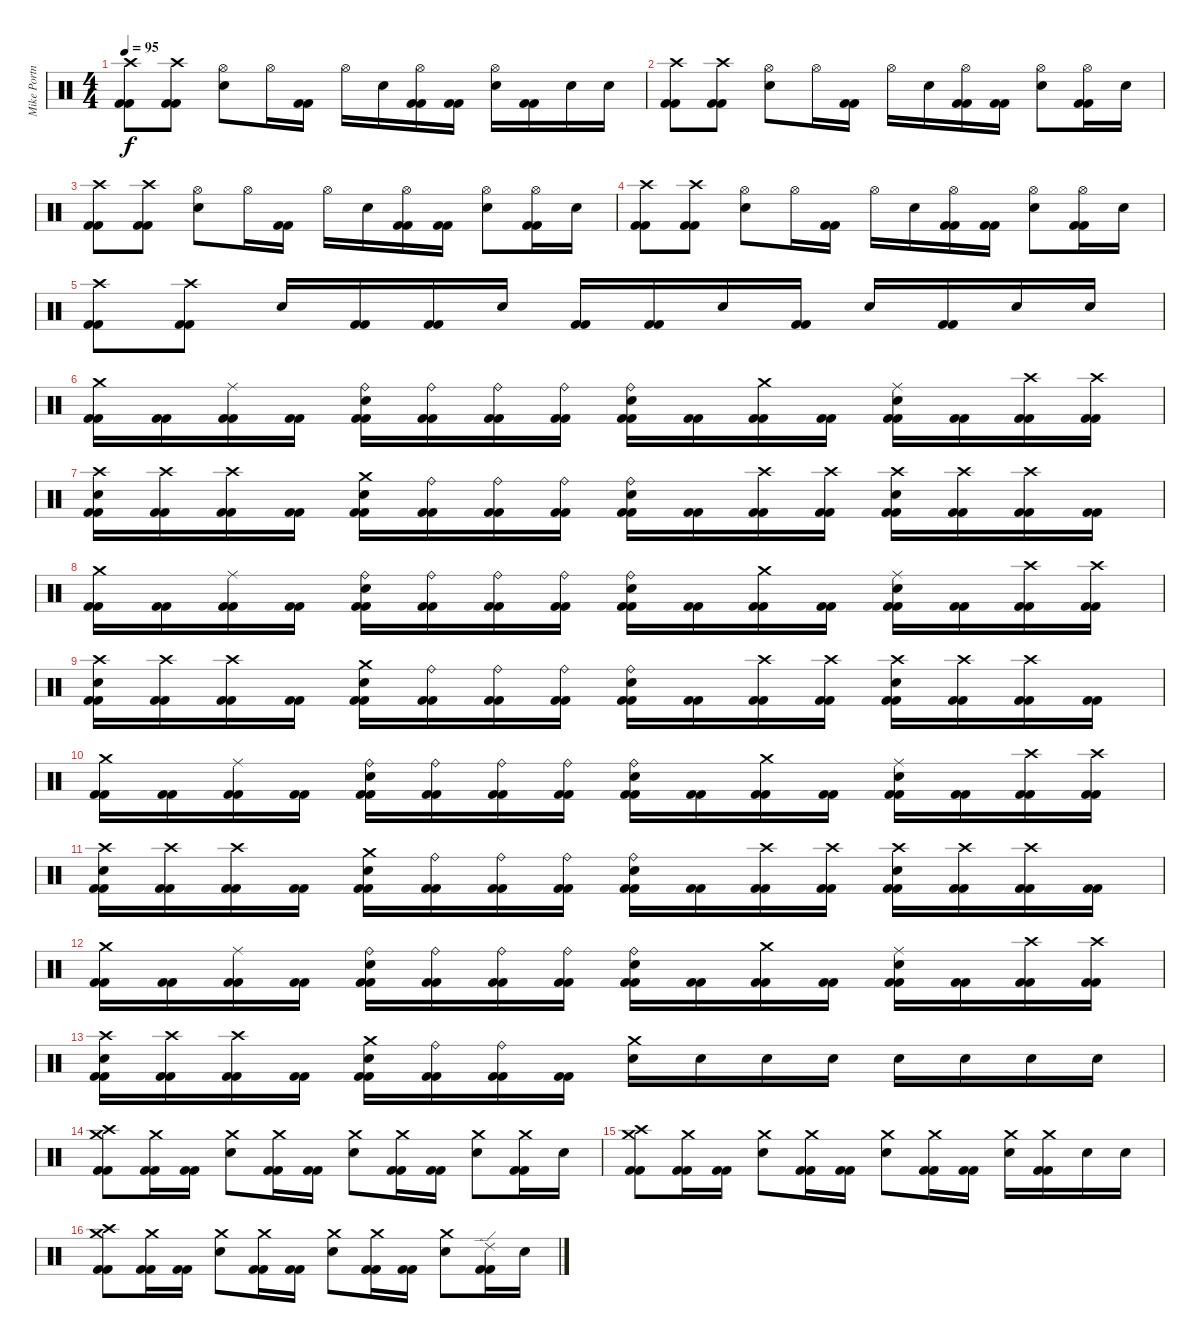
\track ("Mike Portnoy" "Mike Portn") {instrument percussion}
\staff {score}
\articulation defaults
\ts (4 4)
\tempo 95
\clef neutral
\ks c
("Crash high (hit)" "Kick (hit) 2" "Kick (hit) 2").8{dy f} ("Crash high (hit)" "Kick (hit) 2" "Kick (hit) 2").8 ("Hi-Hat (open)" "Snare (hit) 2").8 "Hi-Hat (open)".16 ("Kick (hit) 2" "Kick (hit) 2").16 "Hi-Hat (open)".16 "Snare (hit) 2".16 ("Hi-Hat (open)" "Kick (hit) 2" "Kick (hit) 2").16 ("Kick (hit) 2" "Kick (hit) 2").16 ("Hi-Hat (open)" "Snare (hit) 2").16 ("Kick (hit) 2" "Kick (hit) 2").16 "Snare (hit) 2".16 "Snare (hit) 2".16 |
("Crash high (hit)" "Kick (hit) 2" "Kick (hit) 2").8 ("Crash high (hit)" "Kick (hit) 2" "Kick (hit) 2").8 ("Hi-Hat (open)" "Snare (hit) 2").8 "Hi-Hat (open)".16 ("Kick (hit) 2" "Kick (hit) 2").16 "Hi-Hat (open)".16 "Snare (hit) 2".16 ("Hi-Hat (open)" "Kick (hit) 2" "Kick (hit) 2").16 ("Kick (hit) 2" "Kick (hit) 2").16 ("Hi-Hat (open)" "Snare (hit) 2").8 ("Hi-Hat (open)" "Kick (hit) 2" "Kick (hit) 2").16 "Snare (hit) 2".16 |
("Crash high (hit)" "Kick (hit) 2" "Kick (hit) 2").8 ("Crash high (hit)" "Kick (hit) 2" "Kick (hit) 2").8 ("Hi-Hat (open)" "Snare (hit) 2").8 "Hi-Hat (open)".16 ("Kick (hit) 2" "Kick (hit) 2").16 "Hi-Hat (open)".16 "Snare (hit) 2".16 ("Hi-Hat (open)" "Kick (hit) 2" "Kick (hit) 2").16 ("Kick (hit) 2" "Kick (hit) 2").16 ("Hi-Hat (open)" "Snare (hit) 2").8 ("Hi-Hat (open)" "Kick (hit) 2" "Kick (hit) 2").16 "Snare (hit) 2".16 |
("Crash high (hit)" "Kick (hit) 2" "Kick (hit) 2").8 ("Crash high (hit)" "Kick (hit) 2" "Kick (hit) 2").8 ("Hi-Hat (open)" "Snare (hit) 2").8 "Hi-Hat (open)".16 ("Kick (hit) 2" "Kick (hit) 2").16 "Hi-Hat (open)".16 "Snare (hit) 2".16 ("Hi-Hat (open)" "Kick (hit) 2" "Kick (hit) 2").16 ("Kick (hit) 2" "Kick (hit) 2").16 ("Hi-Hat (open)" "Snare (hit) 2").8 ("Hi-Hat (open)" "Kick (hit) 2" "Kick (hit) 2").16 "Snare (hit) 2".16 |
("Crash high (hit)" "Kick (hit) 2" "Kick (hit) 2").8 ("Crash high (hit)" "Kick (hit) 2" "Kick (hit) 2").8 "Snare (hit) 2".16 ("Kick (hit) 2" "Kick (hit) 2").16 ("Kick (hit) 2" "Kick (hit) 2").16 "Snare (hit) 2".16 ("Kick (hit) 2" "Kick (hit) 2").16 ("Kick (hit) 2" "Kick (hit) 2").16 "Snare (hit) 2".16 ("Kick (hit) 2" "Kick (hit) 2").16 "Snare (hit) 2".16 ("Kick (hit) 2" "Kick (hit) 2").16 "Snare (hit) 2".16 "Snare (hit) 2".16 |
("Crash medium (hit)" "Kick (hit) 2" "Kick (hit) 2").16 ("Kick (hit) 2" "Kick (hit) 2").16 ("Ride (middle)" "Kick (hit) 2" "Kick (hit) 2").16 ("Kick (hit) 2" "Kick (hit) 2").16 ("Ride (bell)" "Snare (hit) 2" "Kick (hit) 2" "Kick (hit) 2").16 ("Ride (bell)" "Kick (hit) 2" "Kick (hit) 2").16 ("Ride (bell)" "Kick (hit) 2" "Kick (hit) 2").16 ("Ride (bell)" "Kick (hit) 2" "Kick (hit) 2").16 ("Ride (bell)" "Snare (hit) 2" "Kick (hit) 2" "Kick (hit) 2").16 ("Kick (hit) 2" "Kick (hit) 2").16 ("Crash medium (hit)" "Kick (hit) 2" "Kick (hit) 2").16 ("Kick (hit) 2" "Kick (hit) 2").16 ("Ride (middle)" "Snare (hit) 2" "Kick (hit) 2" "Kick (hit) 2").16 ("Kick (hit) 2" "Kick (hit) 2").16 ("Crash high (hit)" "Kick (hit) 2" "Kick (hit) 2").16 ("Crash high (hit)" "Kick (hit) 2" "Kick (hit) 2").16 |
("Crash high (hit)" "Snare (hit) 2" "Kick (hit) 2" "Kick (hit) 2").16 ("Crash high (hit)" "Kick (hit) 2" "Kick (hit) 2").16 ("Crash high (hit)" "Kick (hit) 2" "Kick (hit) 2").16 ("Kick (hit) 2" "Kick (hit) 2").16 ("Crash medium (hit)" "Snare (hit) 2" "Kick (hit) 2" "Kick (hit) 2").16 ("Ride (bell)" "Kick (hit) 2" "Kick (hit) 2").16 ("Ride (bell)" "Kick (hit) 2" "Kick (hit) 2").16 ("Ride (bell)" "Kick (hit) 2" "Kick (hit) 2").16 ("Ride (bell)" "Snare (hit) 2" "Kick (hit) 2" "Kick (hit) 2").16 ("Kick (hit) 2" "Kick (hit) 2").16 ("Crash high (hit)" "Kick (hit) 2" "Kick (hit) 2").16 ("Crash high (hit)" "Kick (hit) 2" "Kick (hit) 2").16 ("Crash high (hit)" "Snare (hit) 2" "Kick (hit) 2" "Kick (hit) 2").16 ("Crash high (hit)" "Kick (hit) 2" "Kick (hit) 2").16 ("Crash high (hit)" "Kick (hit) 2" "Kick (hit) 2").16 ("Kick (hit) 2" "Kick (hit) 2").16 |
("Crash medium (hit)" "Kick (hit) 2" "Kick (hit) 2").16 ("Kick (hit) 2" "Kick (hit) 2").16 ("Ride (middle)" "Kick (hit) 2" "Kick (hit) 2").16 ("Kick (hit) 2" "Kick (hit) 2").16 ("Ride (bell)" "Snare (hit) 2" "Kick (hit) 2" "Kick (hit) 2").16 ("Ride (bell)" "Kick (hit) 2" "Kick (hit) 2").16 ("Ride (bell)" "Kick (hit) 2" "Kick (hit) 2").16 ("Ride (bell)" "Kick (hit) 2" "Kick (hit) 2").16 ("Ride (bell)" "Snare (hit) 2" "Kick (hit) 2" "Kick (hit) 2").16 ("Kick (hit) 2" "Kick (hit) 2").16 ("Crash medium (hit)" "Kick (hit) 2" "Kick (hit) 2").16 ("Kick (hit) 2" "Kick (hit) 2").16 ("Ride (middle)" "Snare (hit) 2" "Kick (hit) 2" "Kick (hit) 2").16 ("Kick (hit) 2" "Kick (hit) 2").16 ("Crash high (hit)" "Kick (hit) 2" "Kick (hit) 2").16 ("Crash high (hit)" "Kick (hit) 2" "Kick (hit) 2").16 |
("Crash high (hit)" "Snare (hit) 2" "Kick (hit) 2" "Kick (hit) 2").16 ("Crash high (hit)" "Kick (hit) 2" "Kick (hit) 2").16 ("Crash high (hit)" "Kick (hit) 2" "Kick (hit) 2").16 ("Kick (hit) 2" "Kick (hit) 2").16 ("Crash medium (hit)" "Snare (hit) 2" "Kick (hit) 2" "Kick (hit) 2").16 ("Ride (bell)" "Kick (hit) 2" "Kick (hit) 2").16 ("Ride (bell)" "Kick (hit) 2" "Kick (hit) 2").16 ("Ride (bell)" "Kick (hit) 2" "Kick (hit) 2").16 ("Ride (bell)" "Snare (hit) 2" "Kick (hit) 2" "Kick (hit) 2").16 ("Kick (hit) 2" "Kick (hit) 2").16 ("Crash high (hit)" "Kick (hit) 2" "Kick (hit) 2").16 ("Crash high (hit)" "Kick (hit) 2" "Kick (hit) 2").16 ("Crash high (hit)" "Snare (hit) 2" "Kick (hit) 2" "Kick (hit) 2").16 ("Crash high (hit)" "Kick (hit) 2" "Kick (hit) 2").16 ("Crash high (hit)" "Kick (hit) 2" "Kick (hit) 2").16 ("Kick (hit) 2" "Kick (hit) 2").16 |
("Crash medium (hit)" "Kick (hit) 2" "Kick (hit) 2").16 ("Kick (hit) 2" "Kick (hit) 2").16 ("Ride (middle)" "Kick (hit) 2" "Kick (hit) 2").16 ("Kick (hit) 2" "Kick (hit) 2").16 ("Ride (bell)" "Snare (hit) 2" "Kick (hit) 2" "Kick (hit) 2").16 ("Ride (bell)" "Kick (hit) 2" "Kick (hit) 2").16 ("Ride (bell)" "Kick (hit) 2" "Kick (hit) 2").16 ("Ride (bell)" "Kick (hit) 2" "Kick (hit) 2").16 ("Ride (bell)" "Snare (hit) 2" "Kick (hit) 2" "Kick (hit) 2").16 ("Kick (hit) 2" "Kick (hit) 2").16 ("Crash medium (hit)" "Kick (hit) 2" "Kick (hit) 2").16 ("Kick (hit) 2" "Kick (hit) 2").16 ("Ride (middle)" "Snare (hit) 2" "Kick (hit) 2" "Kick (hit) 2").16 ("Kick (hit) 2" "Kick (hit) 2").16 ("Crash high (hit)" "Kick (hit) 2" "Kick (hit) 2").16 ("Crash high (hit)" "Kick (hit) 2" "Kick (hit) 2").16 |
("Crash high (hit)" "Snare (hit) 2" "Kick (hit) 2" "Kick (hit) 2").16 ("Crash high (hit)" "Kick (hit) 2" "Kick (hit) 2").16 ("Crash high (hit)" "Kick (hit) 2" "Kick (hit) 2").16 ("Kick (hit) 2" "Kick (hit) 2").16 ("Crash medium (hit)" "Snare (hit) 2" "Kick (hit) 2" "Kick (hit) 2").16 ("Ride (bell)" "Kick (hit) 2" "Kick (hit) 2").16 ("Ride (bell)" "Kick (hit) 2" "Kick (hit) 2").16 ("Ride (bell)" "Kick (hit) 2" "Kick (hit) 2").16 ("Ride (bell)" "Snare (hit) 2" "Kick (hit) 2" "Kick (hit) 2").16 ("Kick (hit) 2" "Kick (hit) 2").16 ("Crash high (hit)" "Kick (hit) 2" "Kick (hit) 2").16 ("Crash high (hit)" "Kick (hit) 2" "Kick (hit) 2").16 ("Crash high (hit)" "Snare (hit) 2" "Kick (hit) 2" "Kick (hit) 2").16 ("Crash high (hit)" "Kick (hit) 2" "Kick (hit) 2").16 ("Crash high (hit)" "Kick (hit) 2" "Kick (hit) 2").16 ("Kick (hit) 2" "Kick (hit) 2").16 |
("Crash medium (hit)" "Kick (hit) 2" "Kick (hit) 2").16 ("Kick (hit) 2" "Kick (hit) 2").16 ("Ride (middle)" "Kick (hit) 2" "Kick (hit) 2").16 ("Kick (hit) 2" "Kick (hit) 2").16 ("Ride (bell)" "Snare (hit) 2" "Kick (hit) 2" "Kick (hit) 2").16 ("Ride (bell)" "Kick (hit) 2" "Kick (hit) 2").16 ("Ride (bell)" "Kick (hit) 2" "Kick (hit) 2").16 ("Ride (bell)" "Kick (hit) 2" "Kick (hit) 2").16 ("Ride (bell)" "Snare (hit) 2" "Kick (hit) 2" "Kick (hit) 2").16 ("Kick (hit) 2" "Kick (hit) 2").16 ("Crash medium (hit)" "Kick (hit) 2" "Kick (hit) 2").16 ("Kick (hit) 2" "Kick (hit) 2").16 ("Ride (middle)" "Snare (hit) 2" "Kick (hit) 2" "Kick (hit) 2").16 ("Kick (hit) 2" "Kick (hit) 2").16 ("Crash high (hit)" "Kick (hit) 2" "Kick (hit) 2").16 ("Crash high (hit)" "Kick (hit) 2" "Kick (hit) 2").16 |
("Crash high (hit)" "Snare (hit) 2" "Kick (hit) 2" "Kick (hit) 2").16 ("Crash high (hit)" "Kick (hit) 2" "Kick (hit) 2").16 ("Crash high (hit)" "Kick (hit) 2" "Kick (hit) 2").16 ("Kick (hit) 2" "Kick (hit) 2").16 ("Crash medium (hit)" "Snare (hit) 2" "Kick (hit) 2" "Kick (hit) 2").16 ("Ride (bell)" "Kick (hit) 2" "Kick (hit) 2").16 ("Ride (bell)" "Kick (hit) 2" "Kick (hit) 2").16 ("Kick (hit) 2" "Kick (hit) 2").16 ("Crash medium (hit)" "Snare (hit) 2").16 "Snare (hit) 2".16 "Snare (hit) 2".16 "Snare (hit) 2".16 "Snare (hit) 2".16 "Snare (hit) 2".16 "Snare (hit) 2".16 "Snare (hit) 2".16 |
("Crash medium (hit)" "Crash high (hit)" "Kick (hit) 2" "Kick (hit) 2").8 ("Crash medium (hit)" "Kick (hit) 2" "Kick (hit) 2").16 ("Kick (hit) 2" "Kick (hit) 2").16 ("Crash medium (hit)" "Snare (hit) 2").8 ("Crash medium (hit)" "Kick (hit) 2" "Kick (hit) 2").16 ("Kick (hit) 2" "Kick (hit) 2").16 ("Crash medium (hit)" "Snare (hit) 2").8 ("Crash medium (hit)" "Kick (hit) 2" "Kick (hit) 2").16 ("Kick (hit) 2" "Kick (hit) 2").16 ("Crash medium (hit)" "Snare (hit) 2").8 ("Crash medium (hit)" "Kick (hit) 2" "Kick (hit) 2").16 "Snare (hit) 2".16 |
("Crash medium (hit)" "Crash high (hit)" "Kick (hit) 2" "Kick (hit) 2").8 ("Crash medium (hit)" "Kick (hit) 2" "Kick (hit) 2").16 ("Kick (hit) 2" "Kick (hit) 2").16 ("Crash medium (hit)" "Snare (hit) 2").8 ("Crash medium (hit)" "Kick (hit) 2" "Kick (hit) 2").16 ("Kick (hit) 2" "Kick (hit) 2").16 ("Crash medium (hit)" "Snare (hit) 2").8 ("Crash medium (hit)" "Kick (hit) 2" "Kick (hit) 2").16 ("Kick (hit) 2" "Kick (hit) 2").16 ("Crash medium (hit)" "Snare (hit) 2").16 ("Crash medium (hit)" "Kick (hit) 2" "Kick (hit) 2").16 "Snare (hit) 2".16 "Snare (hit) 2".16 |
("Crash medium (hit)" "Crash high (hit)" "Kick (hit) 2" "Kick (hit) 2").8 ("Crash medium (hit)" "Kick (hit) 2" "Kick (hit) 2").16 ("Kick (hit) 2" "Kick (hit) 2").16 ("Crash medium (hit)" "Snare (hit) 2").8 ("Crash medium (hit)" "Kick (hit) 2" "Kick (hit) 2").16 ("Kick (hit) 2" "Kick (hit) 2").16 ("Crash medium (hit)" "Snare (hit) 2").8 ("Crash medium (hit)" "Kick (hit) 2" "Kick (hit) 2").16 ("Kick (hit) 2" "Kick (hit) 2").16 ("Crash medium (hit)" "Snare (hit) 2").8 ("Ride (edge) 2" "Kick (hit) 2" "Kick (hit) 2").16 "Snare (hit) 2".16
